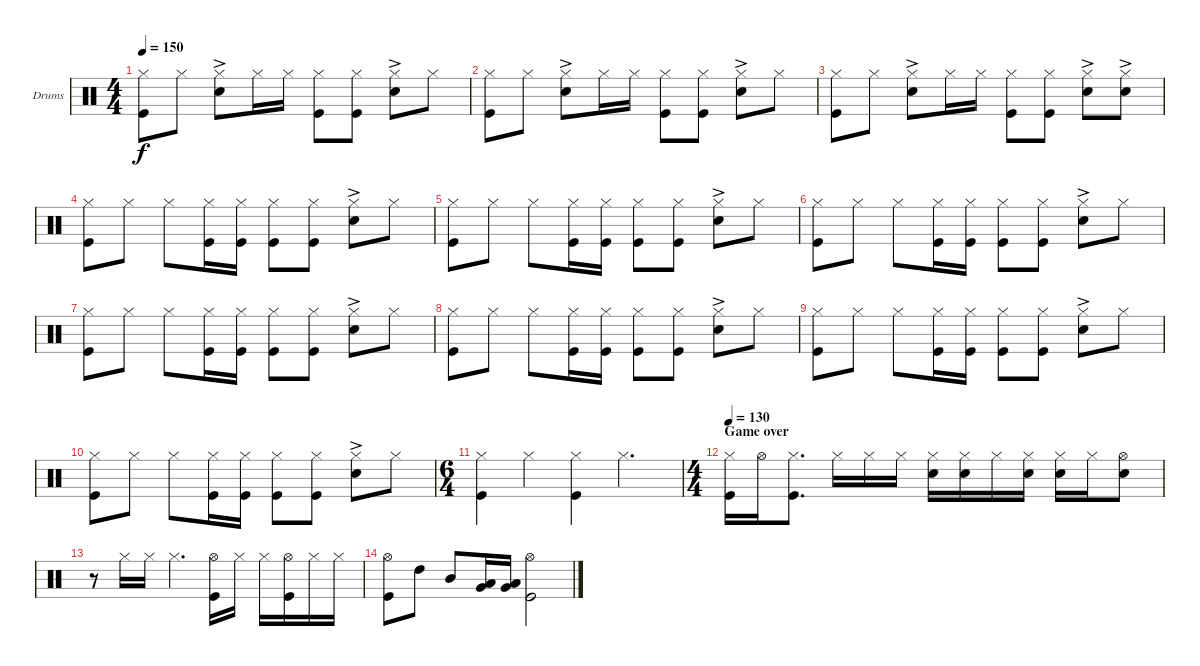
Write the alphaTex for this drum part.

\defaultSystemsLayout 4
\bracketExtendMode groupsimilarinstruments
\firstSystemTrackNameOrientation horizontal
\otherSystemsTrackNameOrientation horizontal
\track ("Drumkit" "Drums") {instrument percussion}
\staff {score}
\articulation defaults
\ts (4 4)
\tempo 150
\clef neutral
\ks c
("Kick (hit)" "Hi-Hat (closed)").8{dy f} "Hi-Hat (closed)".8 ("Snare (hit) 2"{ac} "Hi-Hat (closed)").8 "Hi-Hat (closed)".16 "Hi-Hat (closed)".16 ("Kick (hit)" "Hi-Hat (closed)").8 ("Kick (hit)" "Hi-Hat (closed)").8 ("Snare (hit) 2"{ac} "Hi-Hat (closed)").8 "Hi-Hat (closed)".8 |
("Kick (hit)" "Hi-Hat (closed)").8 "Hi-Hat (closed)".8 ("Snare (hit) 2"{ac} "Hi-Hat (closed)").8 "Hi-Hat (closed)".16 "Hi-Hat (closed)".16 ("Kick (hit)" "Hi-Hat (closed)").8 ("Kick (hit)" "Hi-Hat (closed)").8 ("Snare (hit) 2"{ac} "Hi-Hat (closed)").8 "Hi-Hat (closed)".8 |
("Kick (hit)" "Hi-Hat (closed)").8 "Hi-Hat (closed)".8 ("Snare (hit) 2"{ac} "Hi-Hat (closed)").8 "Hi-Hat (closed)".16 "Hi-Hat (closed)".16 ("Kick (hit)" "Hi-Hat (closed)").8 ("Kick (hit)" "Hi-Hat (closed)").8 ("Snare (hit) 2"{ac} "Hi-Hat (closed)").8 ("Hi-Hat (closed)" "Snare (hit) 2"{ac}).8 |
("Kick (hit)" "Hi-Hat (closed)").8 "Hi-Hat (closed)".8 "Hi-Hat (closed)".8 ("Kick (hit)" "Hi-Hat (closed)").16 ("Kick (hit)" "Hi-Hat (closed)").16 ("Kick (hit)" "Hi-Hat (closed)").8 ("Kick (hit)" "Hi-Hat (closed)").8 ("Snare (hit) 2"{ac} "Hi-Hat (closed)").8 "Hi-Hat (closed)".8 |
("Kick (hit)" "Hi-Hat (closed)").8 "Hi-Hat (closed)".8 "Hi-Hat (closed)".8 ("Kick (hit)" "Hi-Hat (closed)").16 ("Kick (hit)" "Hi-Hat (closed)").16 ("Kick (hit)" "Hi-Hat (closed)").8 ("Kick (hit)" "Hi-Hat (closed)").8 ("Snare (hit) 2"{ac} "Hi-Hat (closed)").8 "Hi-Hat (closed)".8 |
("Kick (hit)" "Hi-Hat (closed)").8 "Hi-Hat (closed)".8 "Hi-Hat (closed)".8 ("Kick (hit)" "Hi-Hat (closed)").16 ("Kick (hit)" "Hi-Hat (closed)").16 ("Kick (hit)" "Hi-Hat (closed)").8 ("Kick (hit)" "Hi-Hat (closed)").8 ("Snare (hit) 2"{ac} "Hi-Hat (closed)").8 "Hi-Hat (closed)".8 |
("Kick (hit)" "Hi-Hat (closed)").8 "Hi-Hat (closed)".8 "Hi-Hat (closed)".8 ("Kick (hit)" "Hi-Hat (closed)").16 ("Kick (hit)" "Hi-Hat (closed)").16 ("Kick (hit)" "Hi-Hat (closed)").8 ("Kick (hit)" "Hi-Hat (closed)").8 ("Snare (hit) 2"{ac} "Hi-Hat (closed)").8 "Hi-Hat (closed)".8 |
("Kick (hit)" "Hi-Hat (closed)").8 "Hi-Hat (closed)".8 "Hi-Hat (closed)".8 ("Kick (hit)" "Hi-Hat (closed)").16 ("Kick (hit)" "Hi-Hat (closed)").16 ("Kick (hit)" "Hi-Hat (closed)").8 ("Kick (hit)" "Hi-Hat (closed)").8 ("Snare (hit) 2"{ac} "Hi-Hat (closed)").8 "Hi-Hat (closed)".8 |
("Kick (hit)" "Hi-Hat (closed)").8 "Hi-Hat (closed)".8 "Hi-Hat (closed)".8 ("Kick (hit)" "Hi-Hat (closed)").16 ("Kick (hit)" "Hi-Hat (closed)").16 ("Kick (hit)" "Hi-Hat (closed)").8 ("Kick (hit)" "Hi-Hat (closed)").8 ("Snare (hit) 2"{ac} "Hi-Hat (closed)").8 "Hi-Hat (closed)".8 |
("Kick (hit)" "Hi-Hat (closed)").8 "Hi-Hat (closed)".8 "Hi-Hat (closed)".8 ("Kick (hit)" "Hi-Hat (closed)").16 ("Kick (hit)" "Hi-Hat (closed)").16 ("Kick (hit)" "Hi-Hat (closed)").8 ("Kick (hit)" "Hi-Hat (closed)").8 ("Snare (hit) 2"{ac} "Hi-Hat (closed)").8 "Hi-Hat (closed)".8 |
\ts (6 4)
("Kick (hit)" "Hi-Hat (closed)").4 "Hi-Hat (closed)".4 ("Kick (hit)" "Hi-Hat (closed)").4 "Hi-Hat (closed)".2{d} |
\ts (4 4)
\section ("" "Game over")
\tempo 130
("Hi-Hat (closed)" "Kick (hit)").16 "Hi-Hat (open)".16 ("Hi-Hat (closed)" "Kick (hit)").8{d} "Hi-Hat (closed)".16 "Hi-Hat (closed)".16 "Hi-Hat (closed)".16 ("Hi-Hat (closed)" "Snare (hit) 2").16 ("Hi-Hat (closed)" "Snare (hit) 2").16 "Hi-Hat (closed)".16 ("Hi-Hat (closed)" "Snare (hit) 2").16 ("Hi-Hat (closed)" "Snare (hit) 2").16 "Hi-Hat (closed)".16 ("Hi-Hat (open)" "Snare (hit) 2").8 |
r.8 "Hi-Hat (closed)".16 "Hi-Hat (closed)".16 "Hi-Hat (closed)".4{d} ("Hi-Hat (open)" "Kick (hit)").16 "Hi-Hat (closed)".16 "Hi-Hat (closed)".16 ("Hi-Hat (open)" "Kick (hit)").16 "Hi-Hat (closed)".16 "Hi-Hat (closed)".16 |
("Hi-Hat (open)" "Kick (hit)").8 "High Tom (hit)".8 "Mid Tom (hit)".8 ("Very Low Tom (hit)" "Low Tom (hit)").16 ("Very Low Tom (hit)" "Low Tom (hit)").16 ("Hi-Hat (open)" "Kick (hit)").2
